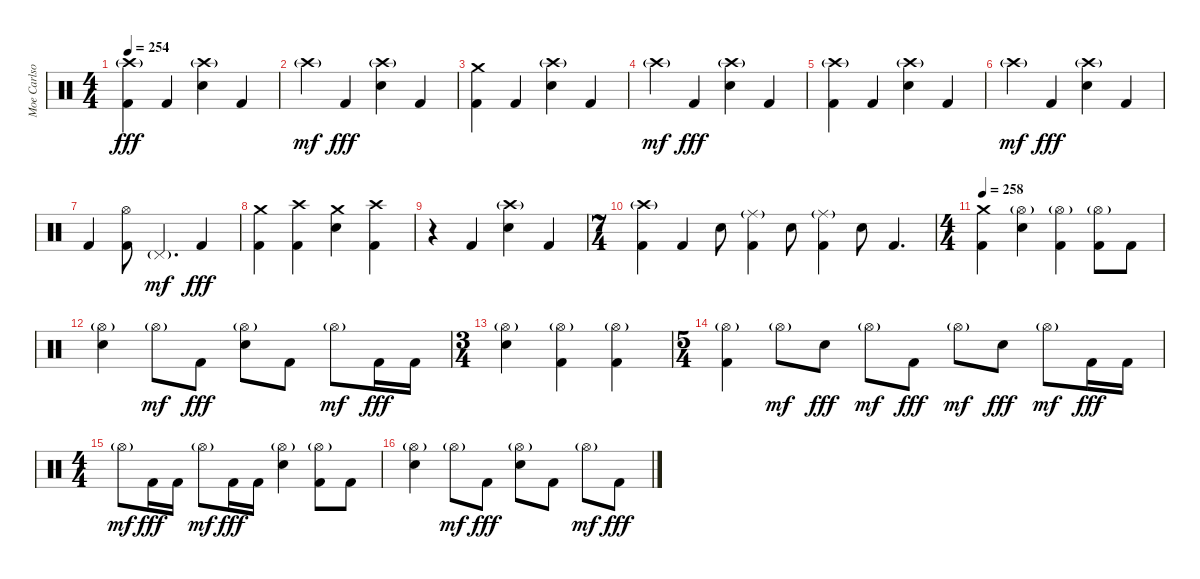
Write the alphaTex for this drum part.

\track ("Moe Carlson" "Moe Carlso") {instrument percussion}
\staff {score}
\articulation defaults
\ts (4 4)
\tempo 254
\clef neutral
\ks c
("Crash high (hit)"{g} "Kick (hit) 2").4{dy fff} "Kick (hit) 2".4 ("Crash high (hit)"{g} "Electric Snare (hit)").4 "Kick (hit) 2".4 |
"Crash high (hit)"{g}.4{dy mf} "Kick (hit) 2".4{dy fff} ("Crash high (hit)"{g} "Electric Snare (hit)").4 "Kick (hit) 2".4 |
("Crash medium (hit)" "Kick (hit) 2").4 "Kick (hit) 2".4 ("Crash high (hit)"{g} "Electric Snare (hit)").4 "Kick (hit) 2".4 |
"Crash high (hit)"{g}.4{dy mf} "Kick (hit) 2".4{dy fff} ("Crash high (hit)"{g} "Electric Snare (hit)").4 "Kick (hit) 2".4 |
("Crash high (hit)"{g} "Kick (hit) 2").4 "Kick (hit) 2".4 ("Crash high (hit)"{g} "Electric Snare (hit)").4 "Kick (hit) 2".4 |
"Crash high (hit)"{g}.4{dy mf} "Kick (hit) 2".4{dy fff} ("Crash high (hit)"{g} "Electric Snare (hit)").4 "Kick (hit) 2".4 |
"Kick (hit) 2".4 ("Hi-Hat (open)" "Kick (hit) 2").8 "Pedal Hi-Hat (hit)"{g}.4{d dy mf} "Kick (hit) 2".4{dy fff} |
("Crash medium (hit)" "Kick (hit) 2").4 ("Crash high (hit)" "Kick (hit) 2").4 ("Crash medium (hit)" "Electric Snare (hit)").4 ("Crash high (hit)" "Kick (hit) 2").4 |
r.4 "Kick (hit) 2".4 ("Crash high (hit)"{g} "Electric Snare (hit)").4 "Kick (hit) 2".4 |
\ts (7 4)
("Crash high (hit)"{g} "Kick (hit) 2").4 "Kick (hit) 2".4 "Electric Snare (hit)".8 ("Ride (middle)"{g} "Kick (hit) 2").4 "Electric Snare (hit)".8 ("Ride (middle)"{g} "Kick (hit) 2").4 "Electric Snare (hit)".8 "Kick (hit) 2".4{d} |
\ts (4 4)
\tempo 258
("Crash medium (hit)" "Kick (hit) 2").4 ("Hi-Hat (open)"{g} "Electric Snare (hit)").4 ("Hi-Hat (open)"{g} "Kick (hit) 2").4 ("Hi-Hat (open)"{g} "Kick (hit) 2").8 "Kick (hit) 2".8 |
("Hi-Hat (open)"{g} "Electric Snare (hit)").4 "Hi-Hat (open)"{g}.8{dy mf} "Kick (hit) 2".8{dy fff} ("Hi-Hat (open)"{g} "Electric Snare (hit)").8 "Kick (hit) 2".8 "Hi-Hat (open)"{g}.8{dy mf} "Kick (hit) 2".16{dy fff} "Kick (hit) 2".16 |
\ts (3 4)
("Hi-Hat (open)"{g} "Electric Snare (hit)").4 ("Hi-Hat (open)"{g} "Kick (hit) 2").4 ("Hi-Hat (open)"{g} "Kick (hit) 2").4 |
\ts (5 4)
("Hi-Hat (open)"{g} "Kick (hit) 2").4 "Hi-Hat (open)"{g}.8{dy mf} "Electric Snare (hit)".8{dy fff} "Hi-Hat (open)"{g}.8{dy mf} "Kick (hit) 2".8{dy fff} "Hi-Hat (open)"{g}.8{dy mf} "Electric Snare (hit)".8{dy fff} "Hi-Hat (open)"{g}.8{dy mf} "Kick (hit) 2".16{dy fff} "Kick (hit) 2".16 |
\ts (4 4)
"Hi-Hat (open)"{g}.8{dy mf} "Kick (hit) 2".16{dy fff} "Kick (hit) 2".16 "Hi-Hat (open)"{g}.8{dy mf} "Kick (hit) 2".16{dy fff} "Kick (hit) 2".16 ("Hi-Hat (open)"{g} "Electric Snare (hit)").4 ("Hi-Hat (open)"{g} "Kick (hit) 2").8 "Kick (hit) 2".8 |
("Hi-Hat (open)"{g} "Electric Snare (hit)").4 "Hi-Hat (open)"{g}.8{dy mf} "Kick (hit) 2".8{dy fff} ("Hi-Hat (open)"{g} "Electric Snare (hit)").8 "Kick (hit) 2".8 "Hi-Hat (open)"{g}.8{dy mf} "Kick (hit) 2".8{dy fff}
